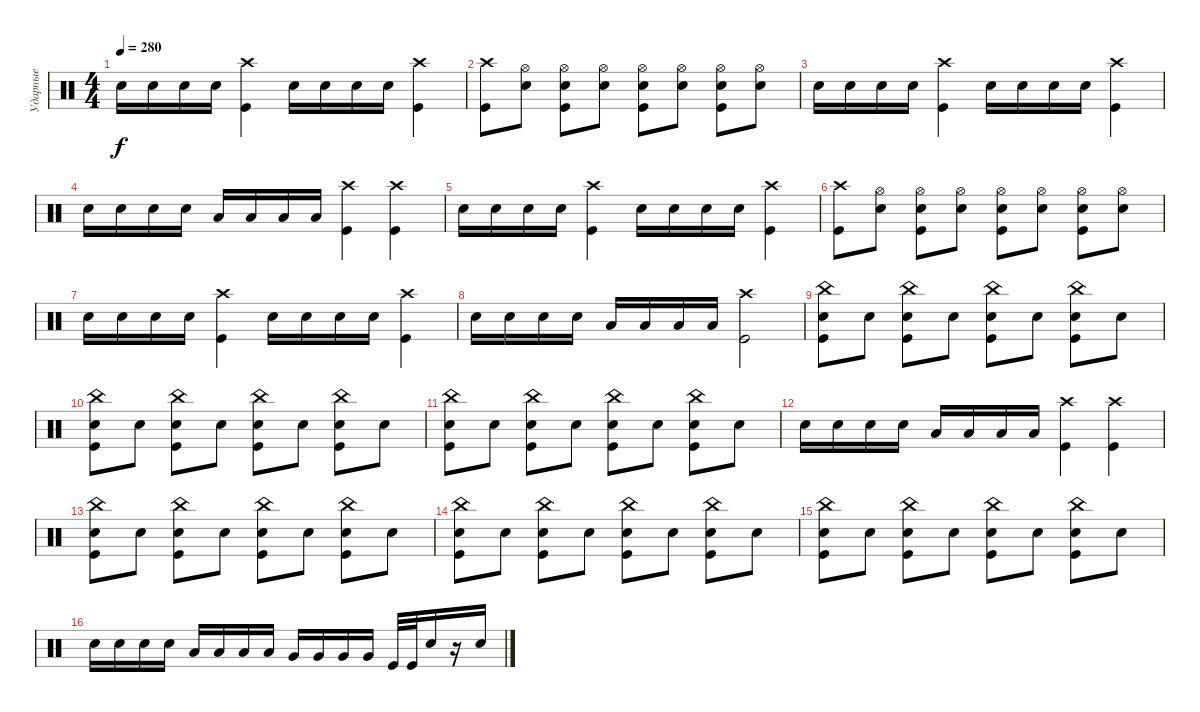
\track ("Ударные" "Ударные") {instrument percussion}
\staff {score}
\articulation defaults
\ts (4 4)
\tempo 280
\clef neutral
\ks c "Snare (hit) 2".16{dy f} "Snare (hit) 2".16 "Snare (hit) 2".16 "Snare (hit) 2".16
("Crash high (hit)" "Kick (hit)").4 "Snare (hit) 2".16 "Snare (hit) 2".16 "Snare (hit) 2".16 "Snare (hit) 2".16 ("Crash high (hit)" "Kick (hit)").4 |
("Crash high (hit)" "Kick (hit)").8 ("Hi-Hat (open)" "Snare (hit) 2").8 ("Kick (hit)" "Hi-Hat (open)" "Snare (hit) 2").8 ("Hi-Hat (open)" "Snare (hit) 2").8 ("Kick (hit)" "Hi-Hat (open)" "Snare (hit) 2").8 ("Hi-Hat (open)" "Snare (hit) 2").8 ("Kick (hit)" "Hi-Hat (open)" "Snare (hit) 2").8 ("Hi-Hat (open)" "Snare (hit) 2").8 |
"Snare (hit) 2".16 "Snare (hit) 2".16 "Snare (hit) 2".16 "Snare (hit) 2".16 ("Crash high (hit)" "Kick (hit)").4 "Snare (hit) 2".16 "Snare (hit) 2".16 "Snare (hit) 2".16 "Snare (hit) 2".16 ("Crash high (hit)" "Kick (hit)").4 |
"Snare (hit) 2".16 "Snare (hit) 2".16 "Snare (hit) 2".16 "Snare (hit) 2".16 "Low Tom (hit)".16 "Low Tom (hit)".16 "Low Tom (hit)".16 "Low Tom (hit)".16 ("Crash high (hit)" "Kick (hit)").4 ("Crash high (hit)" "Kick (hit)").4 |
"Snare (hit) 2".16 "Snare (hit) 2".16 "Snare (hit) 2".16 "Snare (hit) 2".16 ("Crash high (hit)" "Kick (hit)").4 "Snare (hit) 2".16 "Snare (hit) 2".16 "Snare (hit) 2".16 "Snare (hit) 2".16 ("Crash high (hit)" "Kick (hit)").4 |
("Crash high (hit)" "Kick (hit)").8 ("Hi-Hat (open)" "Snare (hit) 2").8 ("Kick (hit)" "Hi-Hat (open)" "Snare (hit) 2").8 ("Hi-Hat (open)" "Snare (hit) 2").8 ("Kick (hit)" "Hi-Hat (open)" "Snare (hit) 2").8 ("Hi-Hat (open)" "Snare (hit) 2").8 ("Kick (hit)" "Hi-Hat (open)" "Snare (hit) 2").8 ("Hi-Hat (open)" "Snare (hit) 2").8 |
"Snare (hit) 2".16 "Snare (hit) 2".16 "Snare (hit) 2".16 "Snare (hit) 2".16 ("Crash high (hit)" "Kick (hit)").4 "Snare (hit) 2".16 "Snare (hit) 2".16 "Snare (hit) 2".16 "Snare (hit) 2".16 ("Crash high (hit)" "Kick (hit)").4 |
"Snare (hit) 2".16 "Snare (hit) 2".16 "Snare (hit) 2".16 "Snare (hit) 2".16 "Low Tom (hit)".16 "Low Tom (hit)".16 "Low Tom (hit)".16 "Low Tom (hit)".16 ("Crash high (hit)" "Kick (hit)").2 |
("Kick (hit)" "China (hit)" "Snare (hit) 2").8 "Snare (hit) 2".8 ("Kick (hit)" "China (hit)" "Snare (hit) 2").8 "Snare (hit) 2".8 ("Kick (hit)" "China (hit)" "Snare (hit) 2").8 "Snare (hit) 2".8 ("Kick (hit)" "China (hit)" "Snare (hit) 2").8 "Snare (hit) 2".8 |
("Kick (hit)" "China (hit)" "Snare (hit) 2").8 "Snare (hit) 2".8 ("Kick (hit)" "China (hit)" "Snare (hit) 2").8 "Snare (hit) 2".8 ("Kick (hit)" "China (hit)" "Snare (hit) 2").8 "Snare (hit) 2".8 ("Kick (hit)" "China (hit)" "Snare (hit) 2").8 "Snare (hit) 2".8 |
("Kick (hit)" "China (hit)" "Snare (hit) 2").8 "Snare (hit) 2".8 ("Kick (hit)" "China (hit)" "Snare (hit) 2").8 "Snare (hit) 2".8 ("Kick (hit)" "China (hit)" "Snare (hit) 2").8 "Snare (hit) 2".8 ("Kick (hit)" "China (hit)" "Snare (hit) 2").8 "Snare (hit) 2".8 |
"Snare (hit) 2".16 "Snare (hit) 2".16 "Snare (hit) 2".16 "Snare (hit) 2".16 "Low Tom (hit)".16 "Low Tom (hit)".16 "Low Tom (hit)".16 "Low Tom (hit)".16 ("Crash high (hit)" "Kick (hit)").4 ("Crash high (hit)" "Kick (hit)").4 |
("Kick (hit)" "China (hit)" "Snare (hit) 2").8 "Snare (hit) 2".8 ("Kick (hit)" "China (hit)" "Snare (hit) 2").8 "Snare (hit) 2".8 ("Kick (hit)" "China (hit)" "Snare (hit) 2").8 "Snare (hit) 2".8 ("Kick (hit)" "China (hit)" "Snare (hit) 2").8 "Snare (hit) 2".8 |
("Kick (hit)" "China (hit)" "Snare (hit) 2").8 "Snare (hit) 2".8 ("Kick (hit)" "China (hit)" "Snare (hit) 2").8 "Snare (hit) 2".8 ("Kick (hit)" "China (hit)" "Snare (hit) 2").8 "Snare (hit) 2".8 ("Kick (hit)" "China (hit)" "Snare (hit) 2").8 "Snare (hit) 2".8 |
("Kick (hit)" "China (hit)" "Snare (hit) 2").8 "Snare (hit) 2".8 ("Kick (hit)" "China (hit)" "Snare (hit) 2").8 "Snare (hit) 2".8 ("Kick (hit)" "China (hit)" "Snare (hit) 2").8 "Snare (hit) 2".8 ("Kick (hit)" "China (hit)" "Snare (hit) 2").8 "Snare (hit) 2".8 |
"Snare (hit) 2".16 "Snare (hit) 2".16 "Snare (hit) 2".16 "Snare (hit) 2".16 "Low Tom (hit)".16 "Low Tom (hit)".16 "Low Tom (hit)".16 "Low Tom (hit)".16 "Very Low Tom (hit)".16 "Very Low Tom (hit)".16 "Very Low Tom (hit)".16 "Very Low Tom (hit)".16 "Kick (hit)".32 "Kick (hit)".32 "Snare (hit) 2".16 r.16 "Snare (hit) 2".16
